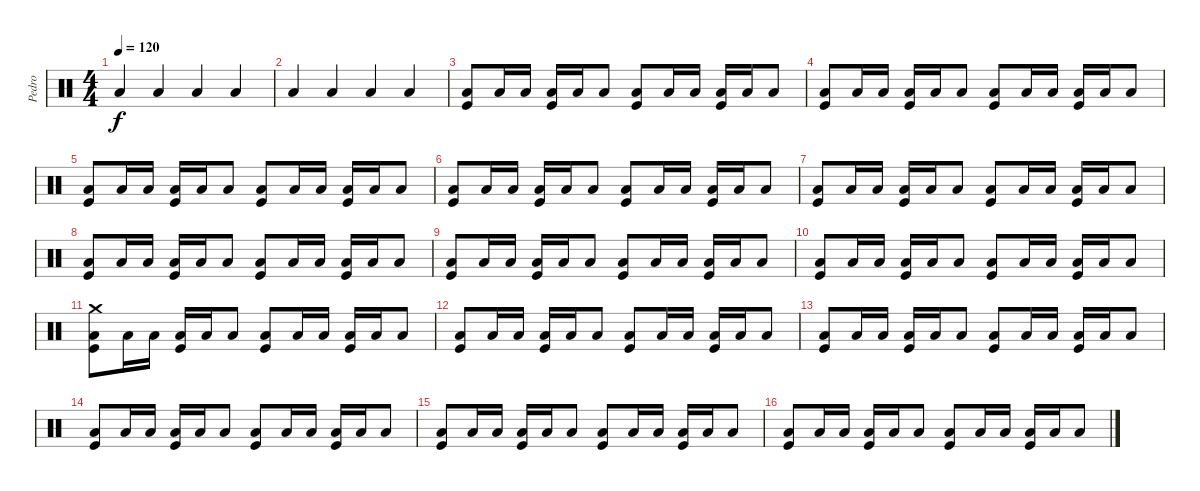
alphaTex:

\track ("Pedro" "Pedro") {instrument percussion}
\staff {score}
\articulation defaults
\ts (4 4)
\tempo 120
\clef neutral
\ks c "Low Floor Tom (hit)".4{dy f} "Low Floor Tom (hit)".4 "Low Floor Tom (hit)".4 "Low Floor Tom (hit)".4
|
"Low Floor Tom (hit)".4 "Low Floor Tom (hit)".4 "Low Floor Tom (hit)".4 "Low Floor Tom (hit)".4 |
("Low Floor Tom (hit)" "Kick (hit)").8 "Low Floor Tom (hit)".16 "Low Floor Tom (hit)".16 ("Low Floor Tom (hit)" "Kick (hit)").16 "Low Floor Tom (hit)".16 "Low Floor Tom (hit)".8 ("Low Floor Tom (hit)" "Kick (hit)").8 "Low Floor Tom (hit)".16 "Low Floor Tom (hit)".16 ("Low Floor Tom (hit)" "Kick (hit)").16 "Low Floor Tom (hit)".16 "Low Floor Tom (hit)".8 |
("Low Floor Tom (hit)" "Kick (hit)").8 "Low Floor Tom (hit)".16 "Low Floor Tom (hit)".16 ("Low Floor Tom (hit)" "Kick (hit)").16 "Low Floor Tom (hit)".16 "Low Floor Tom (hit)".8 ("Low Floor Tom (hit)" "Kick (hit)").8 "Low Floor Tom (hit)".16 "Low Floor Tom (hit)".16 ("Low Floor Tom (hit)" "Kick (hit)").16 "Low Floor Tom (hit)".16 "Low Floor Tom (hit)".8 |
("Low Floor Tom (hit)" "Kick (hit)").8 "Low Floor Tom (hit)".16 "Low Floor Tom (hit)".16 ("Low Floor Tom (hit)" "Kick (hit)").16 "Low Floor Tom (hit)".16 "Low Floor Tom (hit)".8 ("Low Floor Tom (hit)" "Kick (hit)").8 "Low Floor Tom (hit)".16 "Low Floor Tom (hit)".16 ("Low Floor Tom (hit)" "Kick (hit)").16 "Low Floor Tom (hit)".16 "Low Floor Tom (hit)".8 |
("Low Floor Tom (hit)" "Kick (hit)").8 "Low Floor Tom (hit)".16 "Low Floor Tom (hit)".16 ("Low Floor Tom (hit)" "Kick (hit)").16 "Low Floor Tom (hit)".16 "Low Floor Tom (hit)".8 ("Low Floor Tom (hit)" "Kick (hit)").8 "Low Floor Tom (hit)".16 "Low Floor Tom (hit)".16 ("Low Floor Tom (hit)" "Kick (hit)").16 "Low Floor Tom (hit)".16 "Low Floor Tom (hit)".8 |
("Low Floor Tom (hit)" "Kick (hit)").8 "Low Floor Tom (hit)".16 "Low Floor Tom (hit)".16 ("Low Floor Tom (hit)" "Kick (hit)").16 "Low Floor Tom (hit)".16 "Low Floor Tom (hit)".8 ("Low Floor Tom (hit)" "Kick (hit)").8 "Low Floor Tom (hit)".16 "Low Floor Tom (hit)".16 ("Low Floor Tom (hit)" "Kick (hit)").16 "Low Floor Tom (hit)".16 "Low Floor Tom (hit)".8 |
("Low Floor Tom (hit)" "Kick (hit)").8 "Low Floor Tom (hit)".16 "Low Floor Tom (hit)".16 ("Low Floor Tom (hit)" "Kick (hit)").16 "Low Floor Tom (hit)".16 "Low Floor Tom (hit)".8 ("Low Floor Tom (hit)" "Kick (hit)").8 "Low Floor Tom (hit)".16 "Low Floor Tom (hit)".16 ("Low Floor Tom (hit)" "Kick (hit)").16 "Low Floor Tom (hit)".16 "Low Floor Tom (hit)".8 |
("Low Floor Tom (hit)" "Kick (hit)").8 "Low Floor Tom (hit)".16 "Low Floor Tom (hit)".16 ("Low Floor Tom (hit)" "Kick (hit)").16 "Low Floor Tom (hit)".16 "Low Floor Tom (hit)".8 ("Low Floor Tom (hit)" "Kick (hit)").8 "Low Floor Tom (hit)".16 "Low Floor Tom (hit)".16 ("Low Floor Tom (hit)" "Kick (hit)").16 "Low Floor Tom (hit)".16 "Low Floor Tom (hit)".8 |
("Low Floor Tom (hit)" "Kick (hit)").8 "Low Floor Tom (hit)".16 "Low Floor Tom (hit)".16 ("Low Floor Tom (hit)" "Kick (hit)").16 "Low Floor Tom (hit)".16 "Low Floor Tom (hit)".8 ("Low Floor Tom (hit)" "Kick (hit)").8 "Low Floor Tom (hit)".16 "Low Floor Tom (hit)".16 ("Low Floor Tom (hit)" "Kick (hit)").16 "Low Floor Tom (hit)".16 "Low Floor Tom (hit)".8 |
("Crash medium (hit)" "Low Floor Tom (hit)" "Kick (hit)").8 "Low Floor Tom (hit)".16 "Low Floor Tom (hit)".16 ("Low Floor Tom (hit)" "Kick (hit)").16 "Low Floor Tom (hit)".16 "Low Floor Tom (hit)".8 ("Low Floor Tom (hit)" "Kick (hit)").8 "Low Floor Tom (hit)".16 "Low Floor Tom (hit)".16 ("Low Floor Tom (hit)" "Kick (hit)").16 "Low Floor Tom (hit)".16 "Low Floor Tom (hit)".8 |
("Low Floor Tom (hit)" "Kick (hit)").8 "Low Floor Tom (hit)".16 "Low Floor Tom (hit)".16 ("Low Floor Tom (hit)" "Kick (hit)").16 "Low Floor Tom (hit)".16 "Low Floor Tom (hit)".8 ("Low Floor Tom (hit)" "Kick (hit)").8 "Low Floor Tom (hit)".16 "Low Floor Tom (hit)".16 ("Low Floor Tom (hit)" "Kick (hit)").16 "Low Floor Tom (hit)".16 "Low Floor Tom (hit)".8 |
("Low Floor Tom (hit)" "Kick (hit)").8 "Low Floor Tom (hit)".16 "Low Floor Tom (hit)".16 ("Low Floor Tom (hit)" "Kick (hit)").16 "Low Floor Tom (hit)".16 "Low Floor Tom (hit)".8 ("Low Floor Tom (hit)" "Kick (hit)").8 "Low Floor Tom (hit)".16 "Low Floor Tom (hit)".16 ("Low Floor Tom (hit)" "Kick (hit)").16 "Low Floor Tom (hit)".16 "Low Floor Tom (hit)".8 |
("Low Floor Tom (hit)" "Kick (hit)").8 "Low Floor Tom (hit)".16 "Low Floor Tom (hit)".16 ("Low Floor Tom (hit)" "Kick (hit)").16 "Low Floor Tom (hit)".16 "Low Floor Tom (hit)".8 ("Low Floor Tom (hit)" "Kick (hit)").8 "Low Floor Tom (hit)".16 "Low Floor Tom (hit)".16 ("Low Floor Tom (hit)" "Kick (hit)").16 "Low Floor Tom (hit)".16 "Low Floor Tom (hit)".8 |
("Low Floor Tom (hit)" "Kick (hit)").8 "Low Floor Tom (hit)".16 "Low Floor Tom (hit)".16 ("Low Floor Tom (hit)" "Kick (hit)").16 "Low Floor Tom (hit)".16 "Low Floor Tom (hit)".8 ("Low Floor Tom (hit)" "Kick (hit)").8 "Low Floor Tom (hit)".16 "Low Floor Tom (hit)".16 ("Low Floor Tom (hit)" "Kick (hit)").16 "Low Floor Tom (hit)".16 "Low Floor Tom (hit)".8 |
("Low Floor Tom (hit)" "Kick (hit)").8 "Low Floor Tom (hit)".16 "Low Floor Tom (hit)".16 ("Low Floor Tom (hit)" "Kick (hit)").16 "Low Floor Tom (hit)".16 "Low Floor Tom (hit)".8 ("Low Floor Tom (hit)" "Kick (hit)").8 "Low Floor Tom (hit)".16 "Low Floor Tom (hit)".16 ("Low Floor Tom (hit)" "Kick (hit)").16 "Low Floor Tom (hit)".16 "Low Floor Tom (hit)".8
